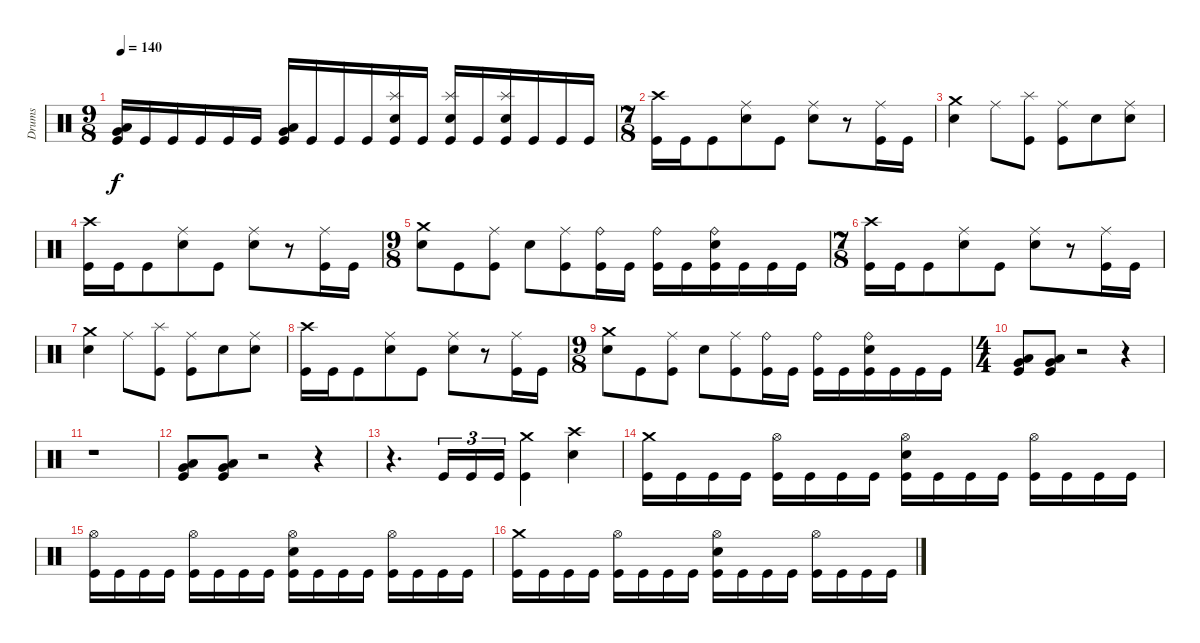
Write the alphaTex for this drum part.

\track ("Drums" "Drums") {instrument percussion}
\staff {score}
\articulation defaults
\ts (9 8)
\tempo 140
\clef neutral
\ks c
("Low Tom (hit)" "Very Low Tom (hit)" "Kick (hit)").16{dy f} "Kick (hit)".16 "Kick (hit)".16 "Kick (hit)".16 "Kick (hit)".16 "Kick (hit)".16 ("Low Tom (hit)" "Very Low Tom (hit)" "Kick (hit)").16 "Kick (hit)".16 "Kick (hit)".16 "Kick (hit)".16 ("Splash (hit)" "Electric Snare (hit)" "Kick (hit)").16 "Kick (hit)".16 ("Splash (hit)" "Electric Snare (hit)" "Kick (hit)").16 "Kick (hit)".16 ("Splash (hit)" "Electric Snare (hit)" "Kick (hit)").16 "Kick (hit)".16 "Kick (hit)".16 "Kick (hit)".16 |
\ts (7 8)
("Crash high (hit)" "Kick (hit)").16 "Kick (hit)".16 "Kick (hit)".8 ("Ride (middle)" "Electric Snare (hit)").8 "Kick (hit)".8 ("Ride (middle)" "Electric Snare (hit)").8 r.8 ("Ride (middle)" "Kick (hit)").16 "Kick (hit)".16 |
("Crash medium (hit)" "Electric Snare (hit)").4 "Ride (middle)".8 ("Splash (hit)" "Kick (hit)").8 ("Ride (middle)" "Kick (hit)").8 "Electric Snare (hit)".8 ("Ride (middle)" "Electric Snare (hit)").8 |
("Crash high (hit)" "Kick (hit)").16 "Kick (hit)".16 "Kick (hit)".8 ("Ride (middle)" "Electric Snare (hit)").8 "Kick (hit)".8 ("Ride (middle)" "Electric Snare (hit)").8 r.8 ("Ride (middle)" "Kick (hit)").16 "Kick (hit)".16 |
\ts (9 8)
("Crash medium (hit)" "Electric Snare (hit)").8 "Kick (hit)".8 ("Ride (middle)" "Kick (hit)").8 "Electric Snare (hit)".8 ("Ride (middle)" "Kick (hit)").8 ("Ride (bell)" "Kick (hit)").16 "Kick (hit)".16 ("Ride (bell)" "Kick (hit)").16 "Kick (hit)".16 ("Ride (bell)" "Electric Snare (hit)" "Kick (hit)").16 "Kick (hit)".16 "Kick (hit)".16 "Kick (hit)".16 |
\ts (7 8)
("Crash high (hit)" "Kick (hit)").16 "Kick (hit)".16 "Kick (hit)".8 ("Ride (middle)" "Electric Snare (hit)").8 "Kick (hit)".8 ("Ride (middle)" "Electric Snare (hit)").8 r.8 ("Ride (middle)" "Kick (hit)").16 "Kick (hit)".16 |
("Crash medium (hit)" "Electric Snare (hit)").4 "Ride (middle)".8 ("Splash (hit)" "Kick (hit)").8 ("Ride (middle)" "Kick (hit)").8 "Electric Snare (hit)".8 ("Ride (middle)" "Electric Snare (hit)").8 |
("Crash high (hit)" "Kick (hit)").16 "Kick (hit)".16 "Kick (hit)".8 ("Ride (middle)" "Electric Snare (hit)").8 "Kick (hit)".8 ("Ride (middle)" "Electric Snare (hit)").8 r.8 ("Ride (middle)" "Kick (hit)").16 "Kick (hit)".16 |
\ts (9 8)
("Crash medium (hit)" "Electric Snare (hit)").8 "Kick (hit)".8 ("Ride (middle)" "Kick (hit)").8 "Electric Snare (hit)".8 ("Ride (middle)" "Kick (hit)").8 ("Ride (bell)" "Kick (hit)").16 "Kick (hit)".16 ("Ride (bell)" "Kick (hit)").16 "Kick (hit)".16 ("Ride (bell)" "Electric Snare (hit)" "Kick (hit)").16 "Kick (hit)".16 "Kick (hit)".16 "Kick (hit)".16 |
\ts (4 4)
("Low Tom (hit)" "Very Low Tom (hit)" "Kick (hit)").8 ("Low Tom (hit)" "Very Low Tom (hit)" "Kick (hit)").8 r.2 r.4 |
r.1 |
("Low Tom (hit)" "Very Low Tom (hit)" "Kick (hit)").8 ("Low Tom (hit)" "Very Low Tom (hit)" "Kick (hit)").8 r.2 r.4 |
r.4{d} "Kick (hit)".16{tu (3 2)} "Kick (hit)".16{tu (3 2)} "Kick (hit)".16{tu (3 2)} ("Crash medium (hit)" "Kick (hit)").4 ("Crash high (hit)" "Electric Snare (hit)").4 |
("Crash medium (hit)" "Kick (hit)").16 "Kick (hit)".16 "Kick (hit)".16 "Kick (hit)".16 ("Hi-Hat (open)" "Kick (hit)").16 "Kick (hit)".16 "Kick (hit)".16 "Kick (hit)".16 ("Hi-Hat (open)" "Electric Snare (hit)" "Kick (hit)").16 "Kick (hit)".16 "Kick (hit)".16 "Kick (hit)".16 ("Hi-Hat (open)" "Kick (hit)").16 "Kick (hit)".16 "Kick (hit)".16 "Kick (hit)".16 |
("Hi-Hat (open)" "Kick (hit)").16 "Kick (hit)".16 "Kick (hit)".16 "Kick (hit)".16 ("Hi-Hat (open)" "Kick (hit)").16 "Kick (hit)".16 "Kick (hit)".16 "Kick (hit)".16 ("Hi-Hat (open)" "Electric Snare (hit)" "Kick (hit)").16 "Kick (hit)".16 "Kick (hit)".16 "Kick (hit)".16 ("Hi-Hat (open)" "Kick (hit)").16 "Kick (hit)".16 "Kick (hit)".16 "Kick (hit)".16 |
("Crash medium (hit)" "Kick (hit)").16 "Kick (hit)".16 "Kick (hit)".16 "Kick (hit)".16 ("Hi-Hat (open)" "Kick (hit)").16 "Kick (hit)".16 "Kick (hit)".16 "Kick (hit)".16 ("Hi-Hat (open)" "Electric Snare (hit)" "Kick (hit)").16 "Kick (hit)".16 "Kick (hit)".16 "Kick (hit)".16 ("Hi-Hat (open)" "Kick (hit)").16 "Kick (hit)".16 "Kick (hit)".16 "Kick (hit)".16
